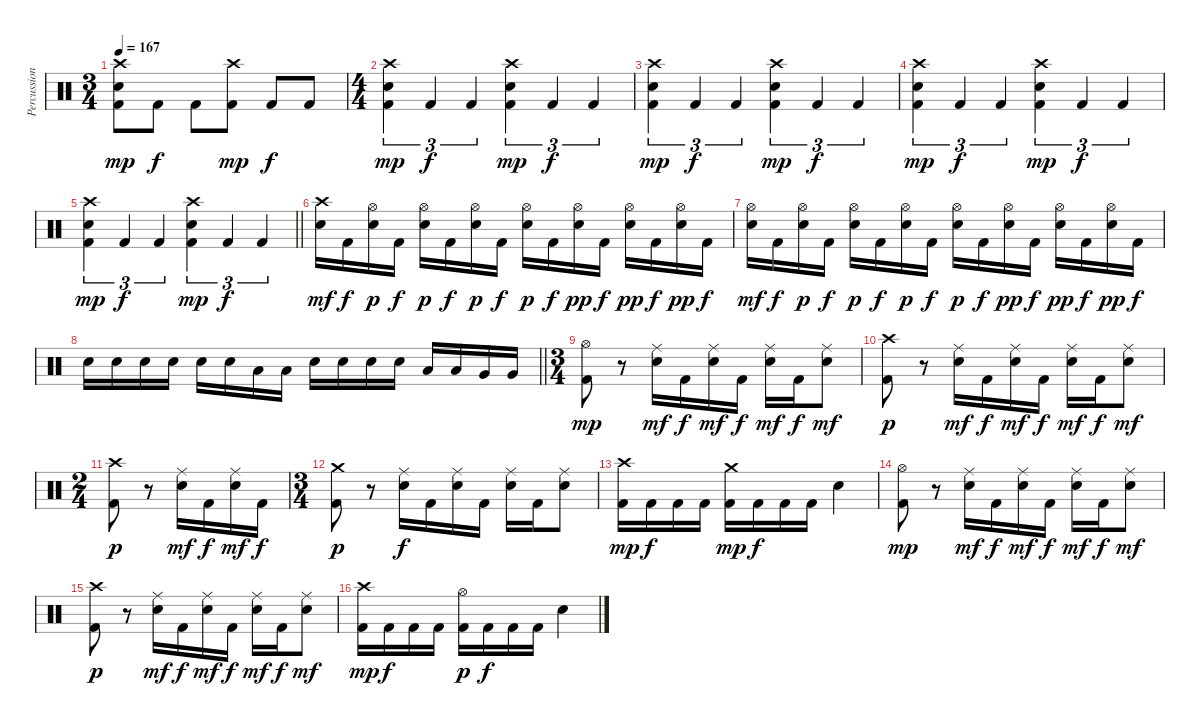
\track ("Percussion" "Percussion") {instrument percussion}
\staff {score}
\articulation defaults
\ts (3 4)
\tempo 167
\clef neutral
\ks c
("Crash high (hit)" "Snare (hit) 2" "Kick (hit) 2").8{dy mp} "Kick (hit) 2".8{dy f} "Kick (hit) 2".8 ("Crash high (hit)" "Kick (hit) 2").8{dy mp} "Kick (hit) 2".8{dy f} "Kick (hit) 2".8 |
\ts (4 4)
("Crash high (hit)" "Snare (hit) 2" "Kick (hit) 2").4{tu (3 2) dy mp} "Kick (hit) 2".4{tu (3 2) dy f} "Kick (hit) 2".4{tu (3 2)} ("Crash high (hit)" "Snare (hit) 2" "Kick (hit) 2").4{tu (3 2) dy mp} "Kick (hit) 2".4{tu (3 2) dy f} "Kick (hit) 2".4{tu (3 2)} |
("Crash high (hit)" "Snare (hit) 2" "Kick (hit) 2").4{tu (3 2) dy mp} "Kick (hit) 2".4{tu (3 2) dy f} "Kick (hit) 2".4{tu (3 2)} ("Crash high (hit)" "Snare (hit) 2" "Kick (hit) 2").4{tu (3 2) dy mp} "Kick (hit) 2".4{tu (3 2) dy f} "Kick (hit) 2".4{tu (3 2)} |
("Crash high (hit)" "Snare (hit) 2" "Kick (hit) 2").4{tu (3 2) dy mp} "Kick (hit) 2".4{tu (3 2) dy f} "Kick (hit) 2".4{tu (3 2)} ("Crash high (hit)" "Snare (hit) 2" "Kick (hit) 2").4{tu (3 2) dy mp} "Kick (hit) 2".4{tu (3 2) dy f} "Kick (hit) 2".4{tu (3 2)} |
\barLineRight lightlight
("Crash high (hit)" "Snare (hit) 2" "Kick (hit) 2").4{tu (3 2) dy mp} "Kick (hit) 2".4{tu (3 2) dy f} "Kick (hit) 2".4{tu (3 2)} ("Crash high (hit)" "Snare (hit) 2" "Kick (hit) 2").4{tu (3 2) dy mp} "Kick (hit) 2".4{tu (3 2) dy f} "Kick (hit) 2".4{tu (3 2)} |
("Crash high (hit)" "Snare (hit) 2").16{dy mf} "Kick (hit) 2".16{dy f} ("Hi-Hat (open)" "Snare (hit) 2").16{dy p} "Kick (hit) 2".16{dy f} ("Hi-Hat (open)" "Snare (hit) 2").16{dy p} "Kick (hit) 2".16{dy f} ("Hi-Hat (open)" "Snare (hit) 2").16{dy p} "Kick (hit) 2".16{dy f} ("Hi-Hat (open)" "Snare (hit) 2").16{dy p} "Kick (hit) 2".16{dy f} ("Hi-Hat (open)" "Snare (hit) 2").16{dy pp} "Kick (hit) 2".16{dy f} ("Hi-Hat (open)" "Snare (hit) 2").16{dy pp} "Kick (hit) 2".16{dy f} ("Hi-Hat (open)" "Snare (hit) 2").16{dy pp} "Kick (hit) 2".16{dy f} |
("Hi-Hat (open)" "Snare (hit) 2").16{dy mf} "Kick (hit) 2".16{dy f} ("Hi-Hat (open)" "Snare (hit) 2").16{dy p} "Kick (hit) 2".16{dy f} ("Hi-Hat (open)" "Snare (hit) 2").16{dy p} "Kick (hit) 2".16{dy f} ("Hi-Hat (open)" "Snare (hit) 2").16{dy p} "Kick (hit) 2".16{dy f} ("Hi-Hat (open)" "Snare (hit) 2").16{dy p} "Kick (hit) 2".16{dy f} ("Hi-Hat (open)" "Snare (hit) 2").16{dy pp} "Kick (hit) 2".16{dy f} ("Hi-Hat (open)" "Snare (hit) 2").16{dy pp} "Kick (hit) 2".16{dy f} ("Hi-Hat (open)" "Snare (hit) 2").16{dy pp} "Kick (hit) 2".16{dy f} |
\barLineRight lightlight "Snare (hit) 2".16 "Snare (hit) 2".16 "Snare (hit) 2".16 "Snare (hit) 2".16 "Snare (hit) 2".16 "Snare (hit) 2".16 "Low Tom (hit)".16 "Low Tom (hit)".16 "Snare (hit) 2".16 "Snare (hit) 2".16 "Snare (hit) 2".16 "Snare (hit) 2".16 "Low Tom (hit)".16 "Low Tom (hit)".16 "Very Low Tom (hit)".16 "Very Low Tom (hit)".16
|
\ts (3 4)
("Hi-Hat (open)" "Kick (hit) 2").8{dy mp} r.8 ("Ride (middle)" "Snare (hit) 2").16{dy mf} "Kick (hit) 2".16{dy f} ("Ride (middle)" "Snare (hit) 2").16{dy mf} "Kick (hit) 2".16{dy f} ("Ride (middle)" "Snare (hit) 2").16{dy mf} "Kick (hit) 2".16{dy f} ("Ride (middle)" "Snare (hit) 2").8{dy mf} |
("Crash high (hit)" "Kick (hit) 2").8{dy p} r.8 ("Ride (middle)" "Snare (hit) 2").16{dy mf} "Kick (hit) 2".16{dy f} ("Ride (middle)" "Snare (hit) 2").16{dy mf} "Kick (hit) 2".16{dy f} ("Ride (middle)" "Snare (hit) 2").16{dy mf} "Kick (hit) 2".16{dy f} ("Ride (middle)" "Snare (hit) 2").8{dy mf} |
\ts (2 4)
("Crash high (hit)" "Kick (hit) 2").8{dy p} r.8 ("Ride (middle)" "Snare (hit) 2").16{dy mf} "Kick (hit) 2".16{dy f} ("Ride (middle)" "Snare (hit) 2").16{dy mf} "Kick (hit) 2".16{dy f} |
\ts (3 4)
("Crash medium (hit)" "Kick (hit) 2").8{dy p} r.8 ("Ride (middle)" "Snare (hit) 2").16{dy f} "Kick (hit) 2".16 ("Ride (middle)" "Snare (hit) 2").16 "Kick (hit) 2".16 ("Ride (middle)" "Snare (hit) 2").16 "Kick (hit) 2".16 ("Ride (middle)" "Snare (hit) 2").8 |
("Crash high (hit)" "Kick (hit) 2").16{dy mp} "Kick (hit) 2".16{dy f} "Kick (hit) 2".16 "Kick (hit) 2".16 ("Crash medium (hit)" "Kick (hit) 2").16{dy mp} "Kick (hit) 2".16{dy f} "Kick (hit) 2".16 "Kick (hit) 2".16 "Snare (hit) 2".4 |
("Hi-Hat (open)" "Kick (hit) 2").8{dy mp} r.8 ("Ride (middle)" "Snare (hit) 2").16{dy mf} "Kick (hit) 2".16{dy f} ("Ride (middle)" "Snare (hit) 2").16{dy mf} "Kick (hit) 2".16{dy f} ("Ride (middle)" "Snare (hit) 2").16{dy mf} "Kick (hit) 2".16{dy f} ("Ride (middle)" "Snare (hit) 2").8{dy mf} |
("Crash high (hit)" "Kick (hit) 2").8{dy p} r.8 ("Ride (middle)" "Snare (hit) 2").16{dy mf} "Kick (hit) 2".16{dy f} ("Ride (middle)" "Snare (hit) 2").16{dy mf} "Kick (hit) 2".16{dy f} ("Ride (middle)" "Snare (hit) 2").16{dy mf} "Kick (hit) 2".16{dy f} ("Ride (middle)" "Snare (hit) 2").8{dy mf} |
("Crash high (hit)" "Kick (hit) 2").16{dy mp} "Kick (hit) 2".16{dy f} "Kick (hit) 2".16 "Kick (hit) 2".16 ("Hi-Hat (open)" "Kick (hit) 2").16{dy p} "Kick (hit) 2".16{dy f} "Kick (hit) 2".16 "Kick (hit) 2".16 "Snare (hit) 2".4
